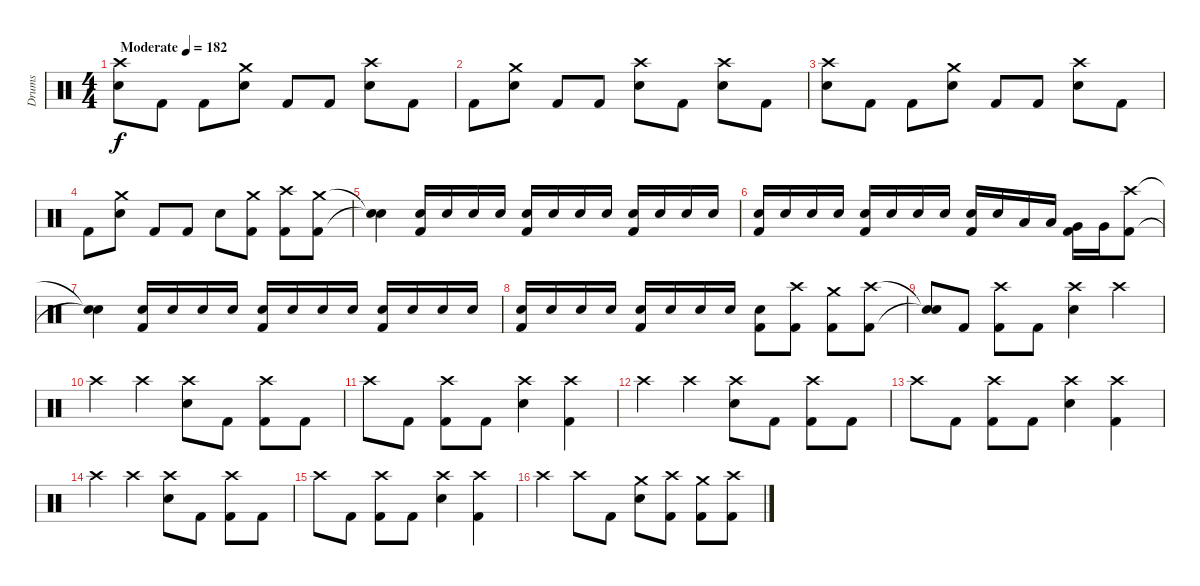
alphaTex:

\track ("Drums" "Drums") {instrument percussion}
\staff {score}
\articulation defaults
\ts (4 4)
\tempo (182 "Moderate")
\clef neutral
\ks c
("Crash high (hit)" "Electric Snare (hit)").8{dy f} "Kick (hit) 2".8 "Kick (hit) 2".8 ("Crash medium (hit)" "Electric Snare (hit)").8 "Kick (hit) 2".8 "Kick (hit) 2".8 ("Crash high (hit)" "Electric Snare (hit)").8 "Kick (hit) 2".8 |
"Kick (hit) 2".8 ("Crash medium (hit)" "Electric Snare (hit)").8 "Kick (hit) 2".8 "Kick (hit) 2".8 ("Crash high (hit)" "Electric Snare (hit)").8 "Kick (hit) 2".8 ("Crash high (hit)" "Electric Snare (hit)").8 "Kick (hit) 2".8 |
("Crash high (hit)" "Electric Snare (hit)").8 "Kick (hit) 2".8 "Kick (hit) 2".8 ("Crash medium (hit)" "Electric Snare (hit)").8 "Kick (hit) 2".8 "Kick (hit) 2".8 ("Crash high (hit)" "Electric Snare (hit)").8 "Kick (hit) 2".8 |
"Kick (hit) 2".8 ("Crash medium (hit)" "Electric Snare (hit)").8 "Kick (hit) 2".8 "Kick (hit) 2".8 "Electric Snare (hit)".8 ("Crash medium (hit)" "Kick (hit) 2").8 ("Crash high (hit)" "Kick (hit) 2").8 ("Crash medium (hit)" "Kick (hit) 2").8 |
("Snare (hit)"{t} "Snare (hit)"{t}).4 ("Electric Snare (hit)" "Kick (hit) 2").16 "Electric Snare (hit)".16 "Electric Snare (hit)".16 "Electric Snare (hit)".16 ("Electric Snare (hit)" "Kick (hit) 2").16 "Electric Snare (hit)".16 "Electric Snare (hit)".16 "Electric Snare (hit)".16 ("Electric Snare (hit)" "Kick (hit) 2").16 "Electric Snare (hit)".16 "Electric Snare (hit)".16 "Electric Snare (hit)".16 |
("Electric Snare (hit)" "Kick (hit) 2").16 "Electric Snare (hit)".16 "Electric Snare (hit)".16 "Electric Snare (hit)".16 ("Electric Snare (hit)" "Kick (hit) 2").16 "Electric Snare (hit)".16 "Electric Snare (hit)".16 "Electric Snare (hit)".16 ("Electric Snare (hit)" "Kick (hit) 2").16 "Electric Snare (hit)".16 "Low Tom (hit)".16 "Low Tom (hit)".16 ("Very Low Tom (hit)" "Kick (hit) 2").16 "Very Low Tom (hit)".16 ("Crash high (hit)" "Kick (hit) 2").8 |
("Snare (hit)"{t} "Snare (hit)"{t}).4 ("Electric Snare (hit)" "Kick (hit) 2").16 "Electric Snare (hit)".16 "Electric Snare (hit)".16 "Electric Snare (hit)".16 ("Electric Snare (hit)" "Kick (hit) 2").16 "Electric Snare (hit)".16 "Electric Snare (hit)".16 "Electric Snare (hit)".16 ("Electric Snare (hit)" "Kick (hit) 2").16 "Electric Snare (hit)".16 "Electric Snare (hit)".16 "Electric Snare (hit)".16 |
("Electric Snare (hit)" "Kick (hit) 2").16 "Electric Snare (hit)".16 "Electric Snare (hit)".16 "Electric Snare (hit)".16 ("Electric Snare (hit)" "Kick (hit) 2").16 "Electric Snare (hit)".16 "Electric Snare (hit)".16 "Electric Snare (hit)".16 ("Electric Snare (hit)" "Kick (hit) 2").8 ("Crash high (hit)" "Kick (hit) 2").8 ("Crash medium (hit)" "Kick (hit) 2").8 ("Crash high (hit)" "Kick (hit) 2").8 |
("Snare (hit)"{t} "Snare (hit)"{t}).8 "Kick (hit) 2".8 ("Crash high (hit)" "Kick (hit) 2").8 "Kick (hit) 2".8 ("Crash high (hit)" "Electric Snare (hit)").4 "Crash high (hit)".4 |
"Crash high (hit)".4 "Crash high (hit)".4 ("Crash high (hit)" "Electric Snare (hit)").8 "Kick (hit) 2".8 ("Crash high (hit)" "Kick (hit) 2").8 "Kick (hit) 2".8 |
"Crash high (hit)".8 "Kick (hit) 2".8 ("Crash high (hit)" "Kick (hit) 2").8 "Kick (hit) 2".8 ("Crash high (hit)" "Electric Snare (hit)").4 ("Crash high (hit)" "Kick (hit) 2").4 |
"Crash high (hit)".4 "Crash high (hit)".4 ("Crash high (hit)" "Electric Snare (hit)").8 "Kick (hit) 2".8 ("Crash high (hit)" "Kick (hit) 2").8 "Kick (hit) 2".8 |
"Crash high (hit)".8 "Kick (hit) 2".8 ("Crash high (hit)" "Kick (hit) 2").8 "Kick (hit) 2".8 ("Crash high (hit)" "Electric Snare (hit)").4 ("Crash high (hit)" "Kick (hit) 2").4 |
"Crash high (hit)".4 "Crash high (hit)".4 ("Crash high (hit)" "Electric Snare (hit)").8 "Kick (hit) 2".8 ("Crash high (hit)" "Kick (hit) 2").8 "Kick (hit) 2".8 |
"Crash high (hit)".8 "Kick (hit) 2".8 ("Crash high (hit)" "Kick (hit) 2").8 "Kick (hit) 2".8 ("Crash high (hit)" "Electric Snare (hit)").4 ("Crash high (hit)" "Kick (hit) 2").4 |
"Crash high (hit)".4 "Crash high (hit)".8 "Kick (hit) 2".8 ("Crash medium (hit)" "Electric Snare (hit)").8 ("Crash high (hit)" "Kick (hit) 2").8 ("Crash medium (hit)" "Kick (hit) 2").8 ("Crash high (hit)" "Kick (hit) 2").8
